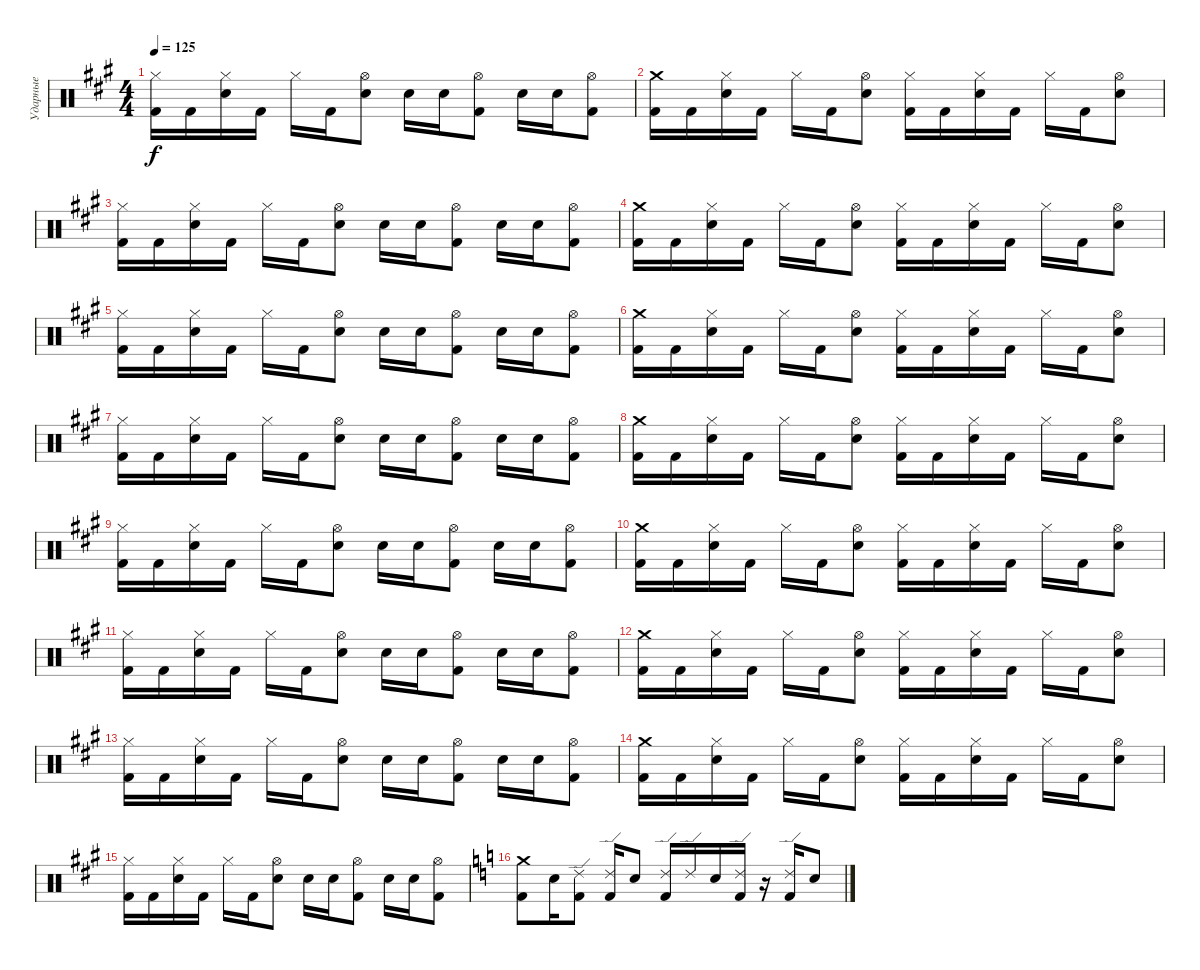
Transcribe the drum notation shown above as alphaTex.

\track ("Ударные" "Ударные") {instrument percussion}
\staff {score}
\articulation defaults
\ts (4 4)
\tempo 125
\clef neutral
\ks a
("Hi-Hat (closed)" "Kick (hit) 2").16{dy f} "Kick (hit) 2".16 ("Hi-Hat (closed)" "Snare (hit) 2").16 "Kick (hit) 2".16 "Hi-Hat (closed)".16 "Kick (hit) 2".16 ("Hi-Hat (open)" "Snare (hit) 2").8 "Snare (hit) 2".16 "Snare (hit) 2".16 ("Hi-Hat (open)" "Kick (hit) 2").8 "Snare (hit) 2".16 "Snare (hit) 2".16 ("Hi-Hat (open)" "Kick (hit) 2").8 |
("Crash medium (hit)" "Kick (hit) 2").16 "Kick (hit) 2".16 ("Hi-Hat (closed)" "Snare (hit) 2").16 "Kick (hit) 2".16 "Hi-Hat (closed)".16 "Kick (hit) 2".16 ("Hi-Hat (open)" "Snare (hit) 2").8 ("Hi-Hat (closed)" "Kick (hit) 2").16 "Kick (hit) 2".16 ("Hi-Hat (closed)" "Snare (hit) 2").16 "Kick (hit) 2".16 "Hi-Hat (closed)".16 "Kick (hit) 2".16 ("Hi-Hat (open)" "Snare (hit) 2").8 |
("Hi-Hat (closed)" "Kick (hit) 2").16 "Kick (hit) 2".16 ("Hi-Hat (closed)" "Snare (hit) 2").16 "Kick (hit) 2".16 "Hi-Hat (closed)".16 "Kick (hit) 2".16 ("Hi-Hat (open)" "Snare (hit) 2").8 "Snare (hit) 2".16 "Snare (hit) 2".16 ("Hi-Hat (open)" "Kick (hit) 2").8 "Snare (hit) 2".16 "Snare (hit) 2".16 ("Hi-Hat (open)" "Kick (hit) 2").8 |
("Crash medium (hit)" "Kick (hit) 2").16 "Kick (hit) 2".16 ("Hi-Hat (closed)" "Snare (hit) 2").16 "Kick (hit) 2".16 "Hi-Hat (closed)".16 "Kick (hit) 2".16 ("Hi-Hat (open)" "Snare (hit) 2").8 ("Hi-Hat (closed)" "Kick (hit) 2").16 "Kick (hit) 2".16 ("Hi-Hat (closed)" "Snare (hit) 2").16 "Kick (hit) 2".16 "Hi-Hat (closed)".16 "Kick (hit) 2".16 ("Hi-Hat (open)" "Snare (hit) 2").8 |
("Hi-Hat (closed)" "Kick (hit) 2").16 "Kick (hit) 2".16 ("Hi-Hat (closed)" "Snare (hit) 2").16 "Kick (hit) 2".16 "Hi-Hat (closed)".16 "Kick (hit) 2".16 ("Hi-Hat (open)" "Snare (hit) 2").8 "Snare (hit) 2".16 "Snare (hit) 2".16 ("Hi-Hat (open)" "Kick (hit) 2").8 "Snare (hit) 2".16 "Snare (hit) 2".16 ("Hi-Hat (open)" "Kick (hit) 2").8 |
("Crash medium (hit)" "Kick (hit) 2").16 "Kick (hit) 2".16 ("Hi-Hat (closed)" "Snare (hit) 2").16 "Kick (hit) 2".16 "Hi-Hat (closed)".16 "Kick (hit) 2".16 ("Hi-Hat (open)" "Snare (hit) 2").8 ("Hi-Hat (closed)" "Kick (hit) 2").16 "Kick (hit) 2".16 ("Hi-Hat (closed)" "Snare (hit) 2").16 "Kick (hit) 2".16 "Hi-Hat (closed)".16 "Kick (hit) 2".16 ("Hi-Hat (open)" "Snare (hit) 2").8 |
("Hi-Hat (closed)" "Kick (hit) 2").16 "Kick (hit) 2".16 ("Hi-Hat (closed)" "Snare (hit) 2").16 "Kick (hit) 2".16 "Hi-Hat (closed)".16 "Kick (hit) 2".16 ("Hi-Hat (open)" "Snare (hit) 2").8 "Snare (hit) 2".16 "Snare (hit) 2".16 ("Hi-Hat (open)" "Kick (hit) 2").8 "Snare (hit) 2".16 "Snare (hit) 2".16 ("Hi-Hat (open)" "Kick (hit) 2").8 |
("Crash medium (hit)" "Kick (hit) 2").16 "Kick (hit) 2".16 ("Hi-Hat (closed)" "Snare (hit) 2").16 "Kick (hit) 2".16 "Hi-Hat (closed)".16 "Kick (hit) 2".16 ("Hi-Hat (open)" "Snare (hit) 2").8 ("Hi-Hat (closed)" "Kick (hit) 2").16 "Kick (hit) 2".16 ("Hi-Hat (closed)" "Snare (hit) 2").16 "Kick (hit) 2".16 "Hi-Hat (closed)".16 "Kick (hit) 2".16 ("Hi-Hat (open)" "Snare (hit) 2").8 |
("Hi-Hat (closed)" "Kick (hit) 2").16 "Kick (hit) 2".16 ("Hi-Hat (closed)" "Snare (hit) 2").16 "Kick (hit) 2".16 "Hi-Hat (closed)".16 "Kick (hit) 2".16 ("Hi-Hat (open)" "Snare (hit) 2").8 "Snare (hit) 2".16 "Snare (hit) 2".16 ("Hi-Hat (open)" "Kick (hit) 2").8 "Snare (hit) 2".16 "Snare (hit) 2".16 ("Hi-Hat (open)" "Kick (hit) 2").8 |
("Crash medium (hit)" "Kick (hit) 2").16 "Kick (hit) 2".16 ("Hi-Hat (closed)" "Snare (hit) 2").16 "Kick (hit) 2".16 "Hi-Hat (closed)".16 "Kick (hit) 2".16 ("Hi-Hat (open)" "Snare (hit) 2").8 ("Hi-Hat (closed)" "Kick (hit) 2").16 "Kick (hit) 2".16 ("Hi-Hat (closed)" "Snare (hit) 2").16 "Kick (hit) 2".16 "Hi-Hat (closed)".16 "Kick (hit) 2".16 ("Hi-Hat (open)" "Snare (hit) 2").8 |
("Hi-Hat (closed)" "Kick (hit) 2").16 "Kick (hit) 2".16 ("Hi-Hat (closed)" "Snare (hit) 2").16 "Kick (hit) 2".16 "Hi-Hat (closed)".16 "Kick (hit) 2".16 ("Hi-Hat (open)" "Snare (hit) 2").8 "Snare (hit) 2".16 "Snare (hit) 2".16 ("Hi-Hat (open)" "Kick (hit) 2").8 "Snare (hit) 2".16 "Snare (hit) 2".16 ("Hi-Hat (open)" "Kick (hit) 2").8 |
("Crash medium (hit)" "Kick (hit) 2").16 "Kick (hit) 2".16 ("Hi-Hat (closed)" "Snare (hit) 2").16 "Kick (hit) 2".16 "Hi-Hat (closed)".16 "Kick (hit) 2".16 ("Hi-Hat (open)" "Snare (hit) 2").8 ("Hi-Hat (closed)" "Kick (hit) 2").16 "Kick (hit) 2".16 ("Hi-Hat (closed)" "Snare (hit) 2").16 "Kick (hit) 2".16 "Hi-Hat (closed)".16 "Kick (hit) 2".16 ("Hi-Hat (open)" "Snare (hit) 2").8 |
("Hi-Hat (closed)" "Kick (hit) 2").16 "Kick (hit) 2".16 ("Hi-Hat (closed)" "Snare (hit) 2").16 "Kick (hit) 2".16 "Hi-Hat (closed)".16 "Kick (hit) 2".16 ("Hi-Hat (open)" "Snare (hit) 2").8 "Snare (hit) 2".16 "Snare (hit) 2".16 ("Hi-Hat (open)" "Kick (hit) 2").8 "Snare (hit) 2".16 "Snare (hit) 2".16 ("Hi-Hat (open)" "Kick (hit) 2").8 |
("Crash medium (hit)" "Kick (hit) 2").16 "Kick (hit) 2".16 ("Hi-Hat (closed)" "Snare (hit) 2").16 "Kick (hit) 2".16 "Hi-Hat (closed)".16 "Kick (hit) 2".16 ("Hi-Hat (open)" "Snare (hit) 2").8 ("Hi-Hat (closed)" "Kick (hit) 2").16 "Kick (hit) 2".16 ("Hi-Hat (closed)" "Snare (hit) 2").16 "Kick (hit) 2".16 "Hi-Hat (closed)".16 "Kick (hit) 2".16 ("Hi-Hat (open)" "Snare (hit) 2").8 |
("Hi-Hat (closed)" "Kick (hit) 2").16 "Kick (hit) 2".16 ("Hi-Hat (closed)" "Snare (hit) 2").16 "Kick (hit) 2".16 "Hi-Hat (closed)".16 "Kick (hit) 2".16 ("Hi-Hat (open)" "Snare (hit) 2").8 "Snare (hit) 2".16 "Snare (hit) 2".16 ("Hi-Hat (open)" "Kick (hit) 2").8 "Snare (hit) 2".16 "Snare (hit) 2".16 ("Hi-Hat (open)" "Kick (hit) 2").8 |
\ks c
("Crash medium (hit)" "Kick (hit) 2").8 "Snare (hit) 2".16 ("Ride (edge) 2" "Kick (hit) 2").8 ("Ride (edge) 2" "Kick (hit) 2").16 "Snare (hit) 2".8 ("Ride (edge) 2" "Kick (hit) 2").16 "Ride (edge) 2".16 "Snare (hit) 2".16 ("Ride (edge) 2" "Kick (hit) 2").16 r.16 ("Ride (edge) 2" "Kick (hit) 2").16 "Snare (hit) 2".8
